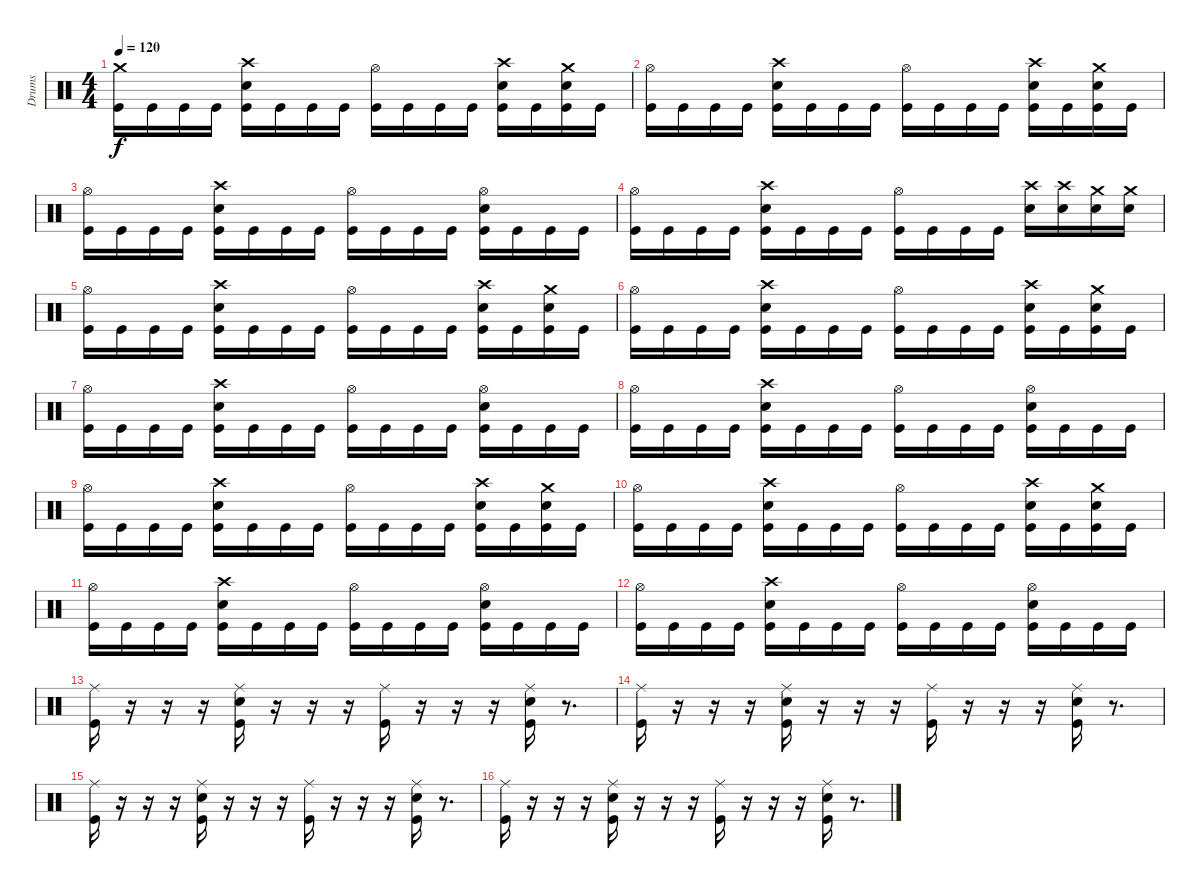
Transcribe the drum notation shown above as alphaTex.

\track ("Drums" "Drums") {instrument percussion}
\staff {score}
\articulation defaults
\ts (4 4)
\tempo 120
\clef neutral
\ks c
("Crash medium (hit)" "Kick (hit)").16{dy f} "Kick (hit)".16 "Kick (hit)".16 "Kick (hit)".16 ("Electric Snare (hit)" "Crash high (hit)" "Kick (hit)").16 "Kick (hit)".16 "Kick (hit)".16 "Kick (hit)".16 ("Hi-Hat (open)" "Kick (hit)").16 "Kick (hit)".16 "Kick (hit)".16 "Kick (hit)".16 ("Electric Snare (hit)" "Crash high (hit)" "Kick (hit)").16 "Kick (hit)".16 ("Electric Snare (hit)" "Crash medium (hit)" "Kick (hit)").16 "Kick (hit)".16 |
("Hi-Hat (open)" "Kick (hit)").16 "Kick (hit)".16 "Kick (hit)".16 "Kick (hit)".16 ("Electric Snare (hit)" "Crash high (hit)" "Kick (hit)").16 "Kick (hit)".16 "Kick (hit)".16 "Kick (hit)".16 ("Hi-Hat (open)" "Kick (hit)").16 "Kick (hit)".16 "Kick (hit)".16 "Kick (hit)".16 ("Electric Snare (hit)" "Crash high (hit)" "Kick (hit)").16 "Kick (hit)".16 ("Electric Snare (hit)" "Crash medium (hit)" "Kick (hit)").16 "Kick (hit)".16 |
("Hi-Hat (open)" "Kick (hit)").16 "Kick (hit)".16 "Kick (hit)".16 "Kick (hit)".16 ("Electric Snare (hit)" "Crash high (hit)" "Kick (hit)").16 "Kick (hit)".16 "Kick (hit)".16 "Kick (hit)".16 ("Hi-Hat (open)" "Kick (hit)").16 "Kick (hit)".16 "Kick (hit)".16 "Kick (hit)".16 ("Hi-Hat (open)" "Electric Snare (hit)" "Kick (hit)").16 "Kick (hit)".16 "Kick (hit)".16 "Kick (hit)".16 |
("Hi-Hat (open)" "Kick (hit)").16 "Kick (hit)".16 "Kick (hit)".16 "Kick (hit)".16 ("Electric Snare (hit)" "Crash high (hit)" "Kick (hit)").16 "Kick (hit)".16 "Kick (hit)".16 "Kick (hit)".16 ("Hi-Hat (open)" "Kick (hit)").16 "Kick (hit)".16 "Kick (hit)".16 "Kick (hit)".16 ("Crash high (hit)" "Electric Snare (hit)").16 ("Crash high (hit)" "Electric Snare (hit)").16 ("Crash medium (hit)" "Electric Snare (hit)").16 ("Crash medium (hit)" "Electric Snare (hit)").16 |
("Hi-Hat (open)" "Kick (hit)").16 "Kick (hit)".16 "Kick (hit)".16 "Kick (hit)".16 ("Electric Snare (hit)" "Crash high (hit)" "Kick (hit)").16 "Kick (hit)".16 "Kick (hit)".16 "Kick (hit)".16 ("Hi-Hat (open)" "Kick (hit)").16 "Kick (hit)".16 "Kick (hit)".16 "Kick (hit)".16 ("Electric Snare (hit)" "Crash high (hit)" "Kick (hit)").16 "Kick (hit)".16 ("Electric Snare (hit)" "Crash medium (hit)" "Kick (hit)").16 "Kick (hit)".16 |
("Hi-Hat (open)" "Kick (hit)").16 "Kick (hit)".16 "Kick (hit)".16 "Kick (hit)".16 ("Electric Snare (hit)" "Crash high (hit)" "Kick (hit)").16 "Kick (hit)".16 "Kick (hit)".16 "Kick (hit)".16 ("Hi-Hat (open)" "Kick (hit)").16 "Kick (hit)".16 "Kick (hit)".16 "Kick (hit)".16 ("Electric Snare (hit)" "Crash high (hit)" "Kick (hit)").16 "Kick (hit)".16 ("Electric Snare (hit)" "Crash medium (hit)" "Kick (hit)").16 "Kick (hit)".16 |
("Hi-Hat (open)" "Kick (hit)").16 "Kick (hit)".16 "Kick (hit)".16 "Kick (hit)".16 ("Electric Snare (hit)" "Crash high (hit)" "Kick (hit)").16 "Kick (hit)".16 "Kick (hit)".16 "Kick (hit)".16 ("Hi-Hat (open)" "Kick (hit)").16 "Kick (hit)".16 "Kick (hit)".16 "Kick (hit)".16 ("Hi-Hat (open)" "Electric Snare (hit)" "Kick (hit)").16 "Kick (hit)".16 "Kick (hit)".16 "Kick (hit)".16 |
("Hi-Hat (open)" "Kick (hit)").16 "Kick (hit)".16 "Kick (hit)".16 "Kick (hit)".16 ("Electric Snare (hit)" "Crash high (hit)" "Kick (hit)").16 "Kick (hit)".16 "Kick (hit)".16 "Kick (hit)".16 ("Hi-Hat (open)" "Kick (hit)").16 "Kick (hit)".16 "Kick (hit)".16 "Kick (hit)".16 ("Hi-Hat (open)" "Electric Snare (hit)" "Kick (hit)").16 "Kick (hit)".16 "Kick (hit)".16 "Kick (hit)".16 |
("Hi-Hat (open)" "Kick (hit)").16 "Kick (hit)".16 "Kick (hit)".16 "Kick (hit)".16 ("Electric Snare (hit)" "Crash high (hit)" "Kick (hit)").16 "Kick (hit)".16 "Kick (hit)".16 "Kick (hit)".16 ("Hi-Hat (open)" "Kick (hit)").16 "Kick (hit)".16 "Kick (hit)".16 "Kick (hit)".16 ("Electric Snare (hit)" "Crash high (hit)" "Kick (hit)").16 "Kick (hit)".16 ("Electric Snare (hit)" "Crash medium (hit)" "Kick (hit)").16 "Kick (hit)".16 |
("Hi-Hat (open)" "Kick (hit)").16 "Kick (hit)".16 "Kick (hit)".16 "Kick (hit)".16 ("Electric Snare (hit)" "Crash high (hit)" "Kick (hit)").16 "Kick (hit)".16 "Kick (hit)".16 "Kick (hit)".16 ("Hi-Hat (open)" "Kick (hit)").16 "Kick (hit)".16 "Kick (hit)".16 "Kick (hit)".16 ("Electric Snare (hit)" "Crash high (hit)" "Kick (hit)").16 "Kick (hit)".16 ("Electric Snare (hit)" "Crash medium (hit)" "Kick (hit)").16 "Kick (hit)".16 |
("Hi-Hat (open)" "Kick (hit)").16 "Kick (hit)".16 "Kick (hit)".16 "Kick (hit)".16 ("Electric Snare (hit)" "Crash high (hit)" "Kick (hit)").16 "Kick (hit)".16 "Kick (hit)".16 "Kick (hit)".16 ("Hi-Hat (open)" "Kick (hit)").16 "Kick (hit)".16 "Kick (hit)".16 "Kick (hit)".16 ("Hi-Hat (open)" "Electric Snare (hit)" "Kick (hit)").16 "Kick (hit)".16 "Kick (hit)".16 "Kick (hit)".16 |
("Hi-Hat (open)" "Kick (hit)").16 "Kick (hit)".16 "Kick (hit)".16 "Kick (hit)".16 ("Electric Snare (hit)" "Crash high (hit)" "Kick (hit)").16 "Kick (hit)".16 "Kick (hit)".16 "Kick (hit)".16 ("Hi-Hat (open)" "Kick (hit)").16 "Kick (hit)".16 "Kick (hit)".16 "Kick (hit)".16 ("Hi-Hat (open)" "Electric Snare (hit)" "Kick (hit)").16 "Kick (hit)".16 "Kick (hit)".16 "Kick (hit)".16 |
("Ride (middle)" "Kick (hit)").16 r.16 r.16 r.16 ("Electric Snare (hit)" "Ride (middle)" "Kick (hit)").16 r.16 r.16 r.16 ("Ride (middle)" "Kick (hit)").16 r.16 r.16 r.16 ("Electric Snare (hit)" "Ride (middle)" "Kick (hit)").16 r.8{d} |
("Ride (middle)" "Kick (hit)").16 r.16 r.16 r.16 ("Electric Snare (hit)" "Ride (middle)" "Kick (hit)").16 r.16 r.16 r.16 ("Ride (middle)" "Kick (hit)").16 r.16 r.16 r.16 ("Electric Snare (hit)" "Ride (middle)" "Kick (hit)").16 r.8{d} |
("Ride (middle)" "Kick (hit)").16 r.16 r.16 r.16 ("Electric Snare (hit)" "Ride (middle)" "Kick (hit)").16 r.16 r.16 r.16 ("Ride (middle)" "Kick (hit)").16 r.16 r.16 r.16 ("Electric Snare (hit)" "Ride (middle)" "Kick (hit)").16 r.8{d} |
("Ride (middle)" "Kick (hit)").16 r.16 r.16 r.16 ("Electric Snare (hit)" "Ride (middle)" "Kick (hit)").16 r.16 r.16 r.16 ("Ride (middle)" "Kick (hit)").16 r.16 r.16 r.16 ("Electric Snare (hit)" "Ride (middle)" "Kick (hit)").16 r.8{d}
